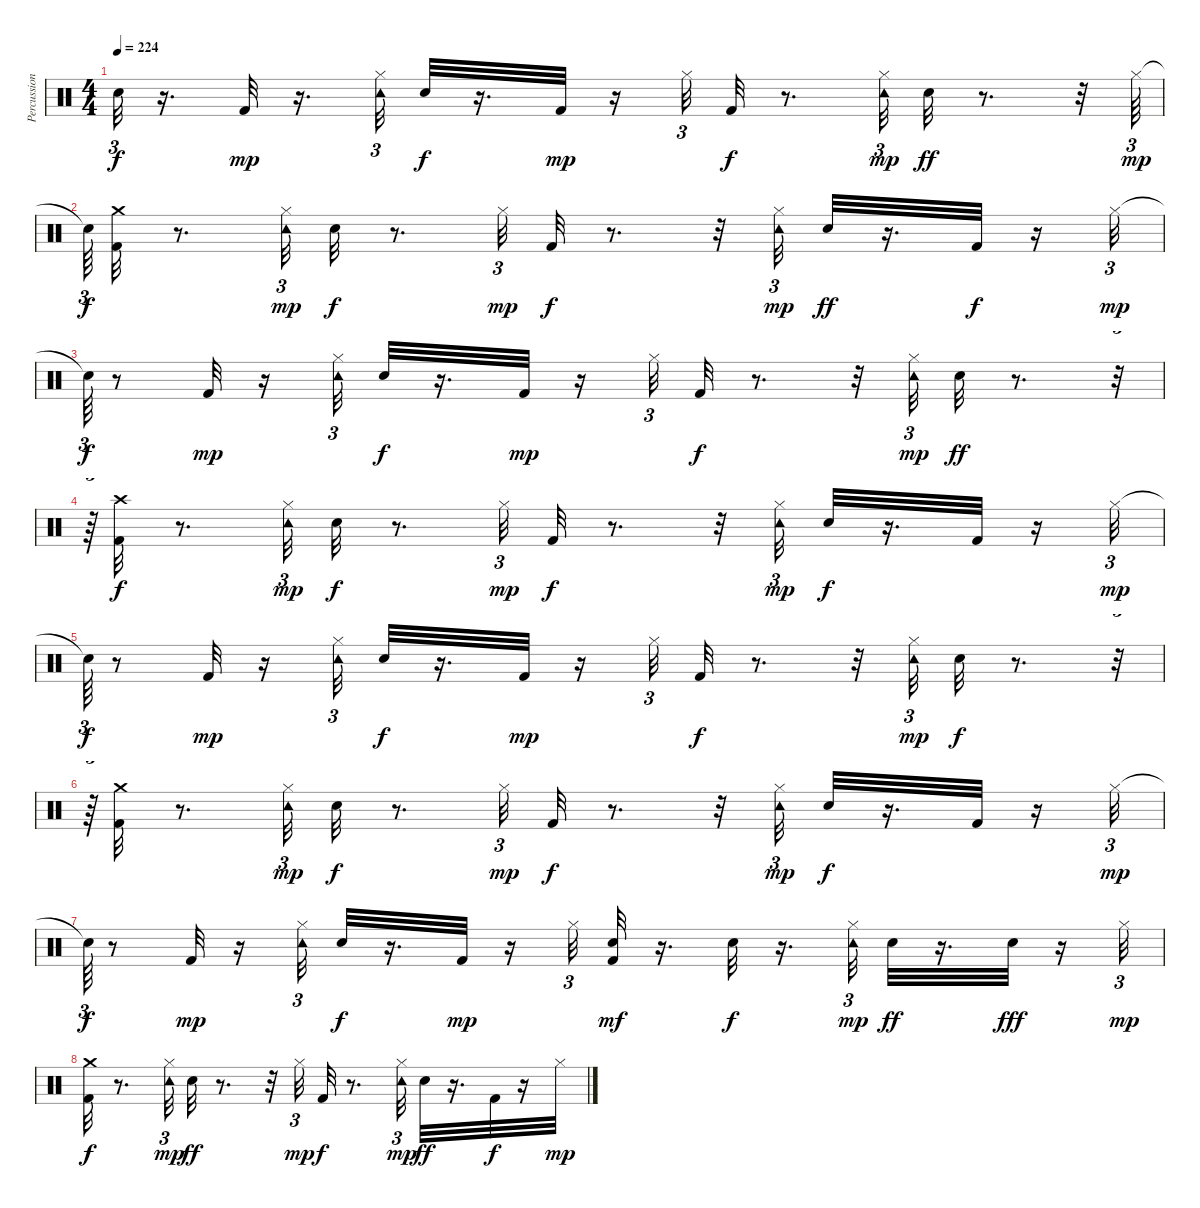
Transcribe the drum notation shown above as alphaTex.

\track ("Percussion" "Percussion") {instrument percussion}
\staff {score}
\articulation defaults
\ts (4 4)
\tempo 224
\clef neutral
\ks c "Snare (hit)"{t}.32{tu (3 2) dy f}
r.16{d} "Kick (hit) 2".32{dy mp} r.16{d} ("Tambourine (hit)" "Hi-Hat (closed)").32{tu (3 2)} "Snare (hit) 2".32{dy f} r.16{d} "Kick (hit) 2".32{dy mp} r.16 "Hi-Hat (closed)".32{tu (3 2)} "Kick (hit) 2".32{dy f} r.8{d} ("Tambourine (hit)" "Hi-Hat (closed)").32{tu (3 2) dy mp} "Snare (hit) 2".32{dy ff} r.8{d} r.32 "Hi-Hat (closed)".64{tu (3 2) dy mp} |
"Snare (hit)"{t}.64{tu (3 2) dy f} ("Kick (hit) 2" "Crash medium (hit)").32 r.8{d} ("Tambourine (hit)" "Hi-Hat (closed)").32{tu (3 2) dy mp} "Snare (hit) 2".32{dy f} r.8{d} "Hi-Hat (closed)".32{tu (3 2) dy mp} "Kick (hit) 2".32{dy f} r.8{d} r.32 ("Tambourine (hit)" "Hi-Hat (closed)").32{tu (3 2) dy mp} "Snare (hit) 2".32{dy ff} r.16{d} "Kick (hit) 2".32{dy f} r.16 "Hi-Hat (closed)".32{tu (3 2) dy mp} |
"Snare (hit)"{t}.64{tu (3 2) dy f} r.8 "Kick (hit) 2".32{dy mp} r.16 ("Tambourine (hit)" "Hi-Hat (closed)").32{tu (3 2)} "Snare (hit) 2".32{dy f} r.16{d} "Kick (hit) 2".32{dy mp} r.16 "Hi-Hat (closed)".32{tu (3 2)} "Kick (hit) 2".32{dy f} r.8{d} r.32 ("Tambourine (hit)" "Hi-Hat (closed)").32{tu (3 2) dy mp} "Snare (hit) 2".32{dy ff} r.8{d} r.32{tu (3 2)} |
r.64{tu (3 2)} ("Kick (hit) 2" "Crash high (hit)").32{dy f} r.8{d} ("Tambourine (hit)" "Hi-Hat (closed)").32{tu (3 2) dy mp} "Snare (hit) 2".32{dy f} r.8{d} "Hi-Hat (closed)".32{tu (3 2) dy mp} "Kick (hit) 2".32{dy f} r.8{d} r.32 ("Tambourine (hit)" "Hi-Hat (closed)").32{tu (3 2) dy mp} "Snare (hit) 2".32{dy f} r.16{d} "Kick (hit) 2".32 r.16 "Hi-Hat (closed)".32{tu (3 2) dy mp} |
"Snare (hit)"{t}.64{tu (3 2) dy f} r.8 "Kick (hit) 2".32{dy mp} r.16 ("Tambourine (hit)" "Hi-Hat (closed)").32{tu (3 2)} "Snare (hit) 2".32{dy f} r.16{d} "Kick (hit) 2".32{dy mp} r.16 "Hi-Hat (closed)".32{tu (3 2)} "Kick (hit) 2".32{dy f} r.8{d} r.32 ("Tambourine (hit)" "Hi-Hat (closed)").32{tu (3 2) dy mp} "Snare (hit) 2".32{dy f} r.8{d} r.32{tu (3 2)} |
r.64{tu (3 2)} ("Kick (hit) 2" "Crash medium (hit)").32 r.8{d} ("Tambourine (hit)" "Hi-Hat (closed)").32{tu (3 2) dy mp} "Snare (hit) 2".32{dy f} r.8{d} "Hi-Hat (closed)".32{tu (3 2) dy mp} "Kick (hit) 2".32{dy f} r.8{d} r.32 ("Tambourine (hit)" "Hi-Hat (closed)").32{tu (3 2) dy mp} "Snare (hit) 2".32{dy f} r.16{d} "Kick (hit) 2".32 r.16 "Hi-Hat (closed)".32{tu (3 2) dy mp} |
"Snare (hit)"{t}.64{tu (3 2) dy f} r.8 "Kick (hit) 2".32{dy mp} r.16 ("Tambourine (hit)" "Hi-Hat (closed)").32{tu (3 2)} "Snare (hit) 2".32{dy f} r.16{d} "Kick (hit) 2".32{dy mp} r.16 "Hi-Hat (closed)".32{tu (3 2)} ("Kick (hit) 2" "Snare (hit) 2").32{dy mf} r.16{d} "Snare (hit) 2".32{dy f} r.16{d} ("Tambourine (hit)" "Hi-Hat (closed)").32{tu (3 2) dy mp} "Snare (hit) 2".32{dy ff} r.16{d} "Snare (hit) 2".32{dy fff} r.16 "Hi-Hat (closed)".32{tu (3 2) dy mp} |
("Kick (hit) 2" "Crash medium (hit)").32{dy f} r.8{d} ("Tambourine (hit)" "Hi-Hat (closed)").32{tu (3 2) dy mp} "Snare (hit) 2".32{dy ff} r.8{d} r.32 "Hi-Hat (closed)".32{tu (3 2) dy mp} "Kick (hit) 2".32{dy f} r.8{d} ("Tambourine (hit)" "Hi-Hat (closed)").32{tu (3 2) dy mp} "Snare (hit) 2".32{dy ff} r.16{d} "Kick (hit) 2".32{dy f} r.16 "Hi-Hat (closed)".32{dy mp}
